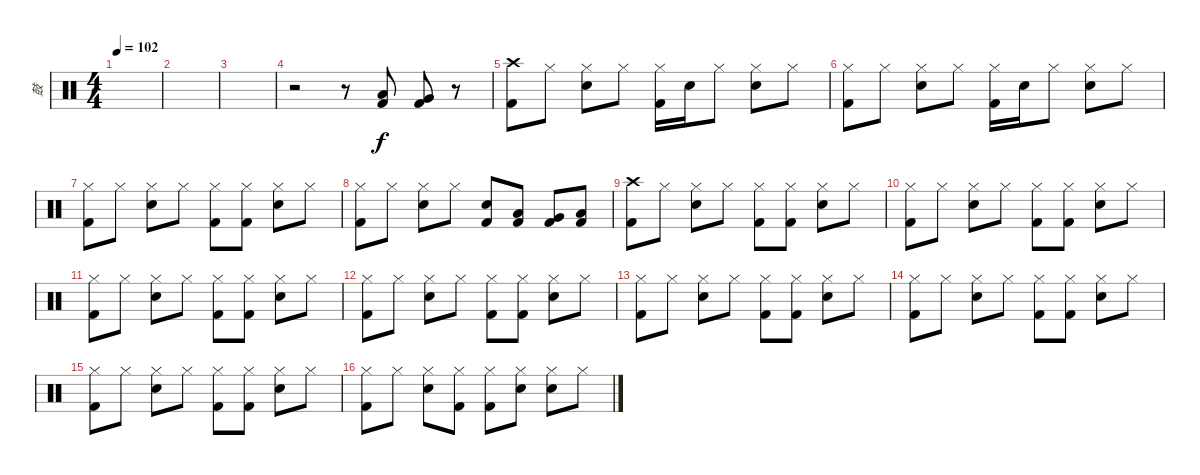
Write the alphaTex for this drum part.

\track ("鼓" "鼓") {instrument percussion}
\staff {score}
\articulation defaults
\ts (4 4)
\tempo 102
\clef neutral
\ks c
|
|
|
r.2 r.8 ("Low Tom (hit)" "Kick (hit) 2").8 ("Very Low Tom (hit)" "Kick (hit) 2").8 r.8 |
("Crash high (hit)" "Kick (hit) 2").8 "Hi-Hat (closed)".8 ("Hi-Hat (closed)" "Electric Snare (hit)").8 "Hi-Hat (closed)".8 ("Hi-Hat (closed)" "Kick (hit) 2").16 "Electric Snare (hit)".16 "Hi-Hat (closed)".8 ("Hi-Hat (closed)" "Electric Snare (hit)").8 "Hi-Hat (closed)".8 |
("Hi-Hat (closed)" "Kick (hit) 2").8 "Hi-Hat (closed)".8 ("Hi-Hat (closed)" "Electric Snare (hit)").8 "Hi-Hat (closed)".8 ("Hi-Hat (closed)" "Kick (hit) 2").16 "Electric Snare (hit)".16 "Hi-Hat (closed)".8 ("Hi-Hat (closed)" "Electric Snare (hit)").8 "Hi-Hat (closed)".8 |
("Hi-Hat (closed)" "Kick (hit) 2").8 "Hi-Hat (closed)".8 ("Hi-Hat (closed)" "Electric Snare (hit)").8 "Hi-Hat (closed)".8 ("Hi-Hat (closed)" "Kick (hit) 2").8 ("Hi-Hat (closed)" "Kick (hit) 2").8 ("Hi-Hat (closed)" "Electric Snare (hit)").8 "Hi-Hat (closed)".8 |
("Hi-Hat (closed)" "Kick (hit) 2").8 "Hi-Hat (closed)".8 ("Hi-Hat (closed)" "Electric Snare (hit)").8 "Hi-Hat (closed)".8 ("Electric Snare (hit)" "Kick (hit) 2").8 ("Low Tom (hit)" "Kick (hit) 2").8 ("Very Low Tom (hit)" "Kick (hit) 2").8 ("Low Floor Tom (hit)" "Kick (hit) 2").8 |
("Crash high (hit)" "Kick (hit) 2").8 "Hi-Hat (closed)".8 ("Hi-Hat (closed)" "Electric Snare (hit)").8 "Hi-Hat (closed)".8 ("Hi-Hat (closed)" "Kick (hit) 2").8 ("Hi-Hat (closed)" "Kick (hit) 2").8 ("Hi-Hat (closed)" "Electric Snare (hit)").8 "Hi-Hat (closed)".8 |
("Hi-Hat (closed)" "Kick (hit) 2").8 "Hi-Hat (closed)".8 ("Hi-Hat (closed)" "Electric Snare (hit)").8 "Hi-Hat (closed)".8 ("Hi-Hat (closed)" "Kick (hit) 2").8 ("Hi-Hat (closed)" "Kick (hit) 2").8 ("Hi-Hat (closed)" "Electric Snare (hit)").8 "Hi-Hat (closed)".8 |
("Hi-Hat (closed)" "Kick (hit) 2").8 "Hi-Hat (closed)".8 ("Hi-Hat (closed)" "Electric Snare (hit)").8 "Hi-Hat (closed)".8 ("Hi-Hat (closed)" "Kick (hit) 2").8 ("Hi-Hat (closed)" "Kick (hit) 2").8 ("Hi-Hat (closed)" "Electric Snare (hit)").8 "Hi-Hat (closed)".8 |
("Hi-Hat (closed)" "Kick (hit) 2").8 "Hi-Hat (closed)".8 ("Hi-Hat (closed)" "Electric Snare (hit)").8 "Hi-Hat (closed)".8 ("Hi-Hat (closed)" "Kick (hit) 2").8 ("Hi-Hat (closed)" "Kick (hit) 2").8 ("Hi-Hat (closed)" "Electric Snare (hit)").8 "Hi-Hat (closed)".8 |
("Hi-Hat (closed)" "Kick (hit) 2").8 "Hi-Hat (closed)".8 ("Hi-Hat (closed)" "Electric Snare (hit)").8 "Hi-Hat (closed)".8 ("Hi-Hat (closed)" "Kick (hit) 2").8 ("Hi-Hat (closed)" "Kick (hit) 2").8 ("Hi-Hat (closed)" "Electric Snare (hit)").8 "Hi-Hat (closed)".8 |
("Hi-Hat (closed)" "Kick (hit) 2").8 "Hi-Hat (closed)".8 ("Hi-Hat (closed)" "Electric Snare (hit)").8 "Hi-Hat (closed)".8 ("Hi-Hat (closed)" "Kick (hit) 2").8 ("Hi-Hat (closed)" "Kick (hit) 2").8 ("Hi-Hat (closed)" "Electric Snare (hit)").8 "Hi-Hat (closed)".8 |
("Hi-Hat (closed)" "Kick (hit) 2").8 "Hi-Hat (closed)".8 ("Hi-Hat (closed)" "Electric Snare (hit)").8 "Hi-Hat (closed)".8 ("Hi-Hat (closed)" "Kick (hit) 2").8 ("Hi-Hat (closed)" "Kick (hit) 2").8 ("Hi-Hat (closed)" "Electric Snare (hit)").8 "Hi-Hat (closed)".8 |
("Hi-Hat (closed)" "Kick (hit) 2").8 "Hi-Hat (closed)".8 ("Hi-Hat (closed)" "Electric Snare (hit)").8 ("Hi-Hat (closed)" "Kick (hit) 2").8 ("Hi-Hat (closed)" "Kick (hit) 2").8 ("Hi-Hat (closed)" "Electric Snare (hit)").8 ("Hi-Hat (closed)" "Electric Snare (hit)").8 "Hi-Hat (closed)".8
